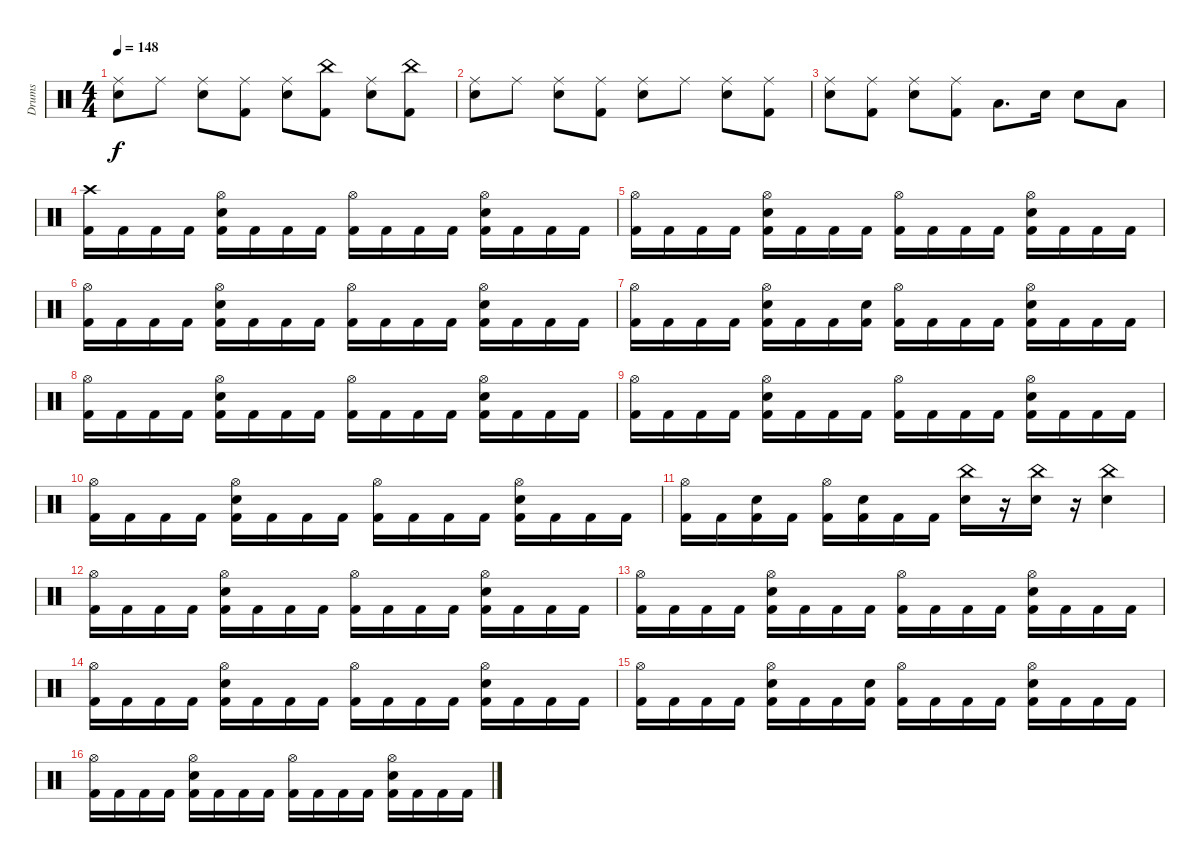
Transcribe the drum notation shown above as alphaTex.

\track ("Drums" "Drums") {instrument percussion}
\staff {score}
\articulation defaults
\ts (4 4)
\tempo 148
\clef neutral
\ks c
("Ride (middle)" "Snare (hit) 2").8{dy f} "Ride (middle)".8 ("Ride (middle)" "Snare (hit) 2").8 ("Ride (middle)" "Kick (hit) 2").8 ("Ride (middle)" "Snare (hit) 2").8 ("China (hit)" "Kick (hit) 2").8 ("Ride (middle)" "Snare (hit) 2").8 ("China (hit)" "Kick (hit) 2").8 |
("Ride (middle)" "Snare (hit) 2").8 "Ride (middle)".8 ("Ride (middle)" "Snare (hit) 2").8 ("Ride (middle)" "Kick (hit) 2").8 ("Ride (middle)" "Snare (hit) 2").8 "Ride (middle)".8 ("Ride (middle)" "Snare (hit) 2").8 ("Ride (middle)" "Kick (hit) 2").8 |
("Ride (middle)" "Snare (hit) 2").8 ("Ride (middle)" "Kick (hit) 2").8 ("Ride (middle)" "Snare (hit) 2").8 ("Ride (middle)" "Kick (hit) 2").8 "Low Tom (hit)".8{d} "Snare (hit) 2".16 "Snare (hit) 2".8 "Low Tom (hit)".8 |
("Crash high (hit)" "Kick (hit) 2").16 "Kick (hit) 2".16 "Kick (hit) 2".16 "Kick (hit) 2".16 ("Hi-Hat (open)" "Snare (hit) 2" "Kick (hit) 2").16 "Kick (hit) 2".16 "Kick (hit) 2".16 "Kick (hit) 2".16 ("Hi-Hat (open)" "Kick (hit) 2").16 "Kick (hit) 2".16 "Kick (hit) 2".16 "Kick (hit) 2".16 ("Hi-Hat (open)" "Snare (hit) 2" "Kick (hit) 2").16 "Kick (hit) 2".16 "Kick (hit) 2".16 "Kick (hit) 2".16 |
("Hi-Hat (open)" "Kick (hit) 2").16 "Kick (hit) 2".16 "Kick (hit) 2".16 "Kick (hit) 2".16 ("Hi-Hat (open)" "Snare (hit) 2" "Kick (hit) 2").16 "Kick (hit) 2".16 "Kick (hit) 2".16 "Kick (hit) 2".16 ("Hi-Hat (open)" "Kick (hit) 2").16 "Kick (hit) 2".16 "Kick (hit) 2".16 "Kick (hit) 2".16 ("Hi-Hat (open)" "Snare (hit) 2" "Kick (hit) 2").16 "Kick (hit) 2".16 "Kick (hit) 2".16 "Kick (hit) 2".16 |
("Hi-Hat (open)" "Kick (hit) 2").16 "Kick (hit) 2".16 "Kick (hit) 2".16 "Kick (hit) 2".16 ("Hi-Hat (open)" "Snare (hit) 2" "Kick (hit) 2").16 "Kick (hit) 2".16 "Kick (hit) 2".16 "Kick (hit) 2".16 ("Hi-Hat (open)" "Kick (hit) 2").16 "Kick (hit) 2".16 "Kick (hit) 2".16 "Kick (hit) 2".16 ("Hi-Hat (open)" "Snare (hit) 2" "Kick (hit) 2").16 "Kick (hit) 2".16 "Kick (hit) 2".16 "Kick (hit) 2".16 |
("Hi-Hat (open)" "Kick (hit) 2").16 "Kick (hit) 2".16 "Kick (hit) 2".16 "Kick (hit) 2".16 ("Hi-Hat (open)" "Snare (hit) 2" "Kick (hit) 2").16 "Kick (hit) 2".16 "Kick (hit) 2".16 ("Snare (hit) 2" "Kick (hit) 2").16 ("Hi-Hat (open)" "Kick (hit) 2").16 "Kick (hit) 2".16 "Kick (hit) 2".16 "Kick (hit) 2".16 ("Hi-Hat (open)" "Snare (hit) 2" "Kick (hit) 2").16 "Kick (hit) 2".16 "Kick (hit) 2".16 "Kick (hit) 2".16 |
("Hi-Hat (open)" "Kick (hit) 2").16 "Kick (hit) 2".16 "Kick (hit) 2".16 "Kick (hit) 2".16 ("Hi-Hat (open)" "Snare (hit) 2" "Kick (hit) 2").16 "Kick (hit) 2".16 "Kick (hit) 2".16 "Kick (hit) 2".16 ("Hi-Hat (open)" "Kick (hit) 2").16 "Kick (hit) 2".16 "Kick (hit) 2".16 "Kick (hit) 2".16 ("Hi-Hat (open)" "Snare (hit) 2" "Kick (hit) 2").16 "Kick (hit) 2".16 "Kick (hit) 2".16 "Kick (hit) 2".16 |
("Hi-Hat (open)" "Kick (hit) 2").16 "Kick (hit) 2".16 "Kick (hit) 2".16 "Kick (hit) 2".16 ("Hi-Hat (open)" "Snare (hit) 2" "Kick (hit) 2").16 "Kick (hit) 2".16 "Kick (hit) 2".16 "Kick (hit) 2".16 ("Hi-Hat (open)" "Kick (hit) 2").16 "Kick (hit) 2".16 "Kick (hit) 2".16 "Kick (hit) 2".16 ("Hi-Hat (open)" "Snare (hit) 2" "Kick (hit) 2").16 "Kick (hit) 2".16 "Kick (hit) 2".16 "Kick (hit) 2".16 |
("Hi-Hat (open)" "Kick (hit) 2").16 "Kick (hit) 2".16 "Kick (hit) 2".16 "Kick (hit) 2".16 ("Hi-Hat (open)" "Snare (hit) 2" "Kick (hit) 2").16 "Kick (hit) 2".16 "Kick (hit) 2".16 "Kick (hit) 2".16 ("Hi-Hat (open)" "Kick (hit) 2").16 "Kick (hit) 2".16 "Kick (hit) 2".16 "Kick (hit) 2".16 ("Hi-Hat (open)" "Snare (hit) 2" "Kick (hit) 2").16 "Kick (hit) 2".16 "Kick (hit) 2".16 "Kick (hit) 2".16 |
("Hi-Hat (open)" "Kick (hit) 2").16 "Kick (hit) 2".16 ("Snare (hit) 2" "Kick (hit) 2").16 "Kick (hit) 2".16 ("Hi-Hat (open)" "Kick (hit) 2").16 ("Snare (hit) 2" "Kick (hit) 2").16 "Kick (hit) 2".16 "Kick (hit) 2".16 ("China (hit)" "Snare (hit) 2").16 r.16 ("China (hit)" "Snare (hit) 2").16 r.16 ("China (hit)" "Snare (hit) 2").4 |
("Hi-Hat (open)" "Kick (hit) 2").16 "Kick (hit) 2".16 "Kick (hit) 2".16 "Kick (hit) 2".16 ("Hi-Hat (open)" "Snare (hit) 2" "Kick (hit) 2").16 "Kick (hit) 2".16 "Kick (hit) 2".16 "Kick (hit) 2".16 ("Hi-Hat (open)" "Kick (hit) 2").16 "Kick (hit) 2".16 "Kick (hit) 2".16 "Kick (hit) 2".16 ("Hi-Hat (open)" "Snare (hit) 2" "Kick (hit) 2").16 "Kick (hit) 2".16 "Kick (hit) 2".16 "Kick (hit) 2".16 |
("Hi-Hat (open)" "Kick (hit) 2").16 "Kick (hit) 2".16 "Kick (hit) 2".16 "Kick (hit) 2".16 ("Hi-Hat (open)" "Snare (hit) 2" "Kick (hit) 2").16 "Kick (hit) 2".16 "Kick (hit) 2".16 "Kick (hit) 2".16 ("Hi-Hat (open)" "Kick (hit) 2").16 "Kick (hit) 2".16 "Kick (hit) 2".16 "Kick (hit) 2".16 ("Hi-Hat (open)" "Snare (hit) 2" "Kick (hit) 2").16 "Kick (hit) 2".16 "Kick (hit) 2".16 "Kick (hit) 2".16 |
("Hi-Hat (open)" "Kick (hit) 2").16 "Kick (hit) 2".16 "Kick (hit) 2".16 "Kick (hit) 2".16 ("Hi-Hat (open)" "Snare (hit) 2" "Kick (hit) 2").16 "Kick (hit) 2".16 "Kick (hit) 2".16 "Kick (hit) 2".16 ("Hi-Hat (open)" "Kick (hit) 2").16 "Kick (hit) 2".16 "Kick (hit) 2".16 "Kick (hit) 2".16 ("Hi-Hat (open)" "Snare (hit) 2" "Kick (hit) 2").16 "Kick (hit) 2".16 "Kick (hit) 2".16 "Kick (hit) 2".16 |
("Hi-Hat (open)" "Kick (hit) 2").16 "Kick (hit) 2".16 "Kick (hit) 2".16 "Kick (hit) 2".16 ("Hi-Hat (open)" "Snare (hit) 2" "Kick (hit) 2").16 "Kick (hit) 2".16 "Kick (hit) 2".16 ("Snare (hit) 2" "Kick (hit) 2").16 ("Hi-Hat (open)" "Kick (hit) 2").16 "Kick (hit) 2".16 "Kick (hit) 2".16 "Kick (hit) 2".16 ("Hi-Hat (open)" "Snare (hit) 2" "Kick (hit) 2").16 "Kick (hit) 2".16 "Kick (hit) 2".16 "Kick (hit) 2".16 |
("Hi-Hat (open)" "Kick (hit) 2").16 "Kick (hit) 2".16 "Kick (hit) 2".16 "Kick (hit) 2".16 ("Hi-Hat (open)" "Snare (hit) 2" "Kick (hit) 2").16 "Kick (hit) 2".16 "Kick (hit) 2".16 "Kick (hit) 2".16 ("Hi-Hat (open)" "Kick (hit) 2").16 "Kick (hit) 2".16 "Kick (hit) 2".16 "Kick (hit) 2".16 ("Hi-Hat (open)" "Snare (hit) 2" "Kick (hit) 2").16 "Kick (hit) 2".16 "Kick (hit) 2".16 "Kick (hit) 2".16
